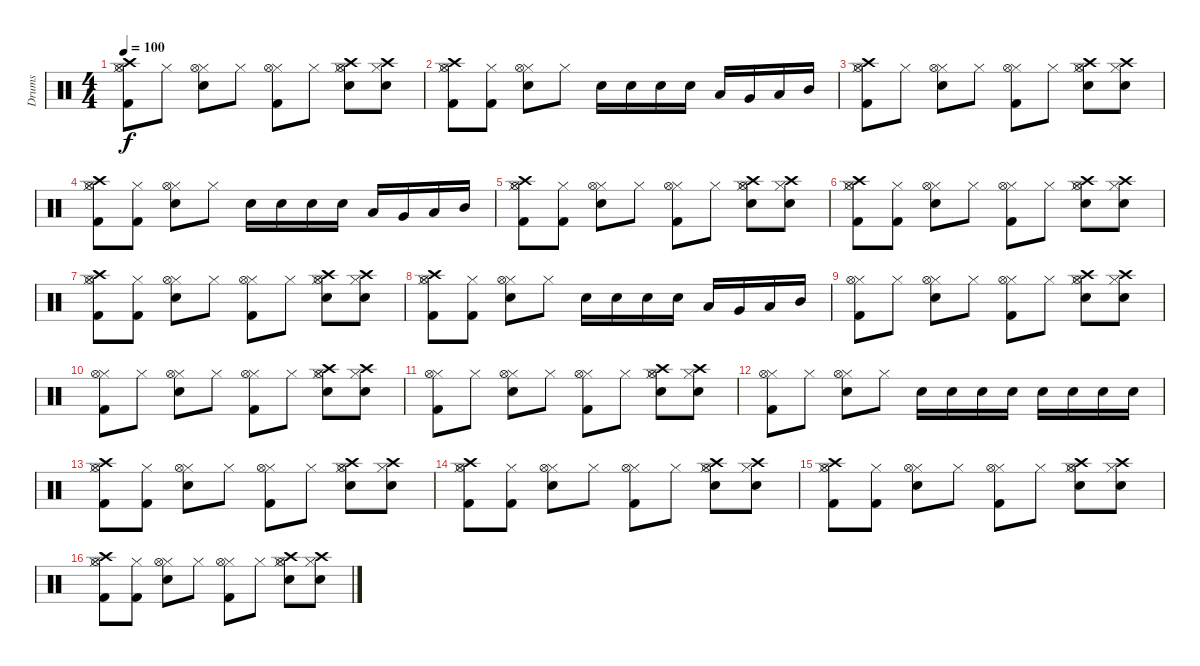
\track ("Drums" "Drums") {instrument percussion}
\staff {score}
\articulation defaults
\ts (4 4)
\tempo 100
\clef neutral
\ks c
("Crash high (hit)" "Kick (hit) 2" "Hi-Hat (closed)" "Hi-Hat (open)").8{dy f} "Hi-Hat (closed)".8 ("Electric Snare (hit)" "Hi-Hat (closed)" "Hi-Hat (open)").8 "Hi-Hat (closed)".8 ("Kick (hit) 2" "Hi-Hat (closed)" "Hi-Hat (open)").8 "Hi-Hat (closed)".8 ("Crash high (hit)" "Electric Snare (hit)" "Hi-Hat (closed)" "Hi-Hat (open)").8 ("Crash high (hit)" "Electric Snare (hit)" "Hi-Hat (closed)").8 |
("Crash high (hit)" "Kick (hit) 2" "Hi-Hat (closed)" "Hi-Hat (open)").8 ("Kick (hit) 2" "Hi-Hat (closed)").8 ("Electric Snare (hit)" "Hi-Hat (closed)" "Hi-Hat (open)").8 "Hi-Hat (closed)".8 "Electric Snare (hit)".16 "Electric Snare (hit)".16 "Electric Snare (hit)".16 "Electric Snare (hit)".16 "Low Floor Tom (hit)".16 "Very Low Tom (hit)".16 "Low Tom (hit)".16 "Mid Tom (hit)".16 |
("Crash high (hit)" "Kick (hit) 2" "Hi-Hat (closed)" "Hi-Hat (open)").8 "Hi-Hat (closed)".8 ("Electric Snare (hit)" "Hi-Hat (closed)" "Hi-Hat (open)").8 "Hi-Hat (closed)".8 ("Kick (hit) 2" "Hi-Hat (closed)" "Hi-Hat (open)").8 "Hi-Hat (closed)".8 ("Crash high (hit)" "Electric Snare (hit)" "Hi-Hat (closed)" "Hi-Hat (open)").8 ("Crash high (hit)" "Electric Snare (hit)" "Hi-Hat (closed)").8 |
("Crash high (hit)" "Kick (hit) 2" "Hi-Hat (closed)" "Hi-Hat (open)").8 ("Kick (hit) 2" "Hi-Hat (closed)").8 ("Electric Snare (hit)" "Hi-Hat (closed)" "Hi-Hat (open)").8 "Hi-Hat (closed)".8 "Electric Snare (hit)".16 "Electric Snare (hit)".16 "Electric Snare (hit)".16 "Electric Snare (hit)".16 "Low Floor Tom (hit)".16 "Very Low Tom (hit)".16 "Low Tom (hit)".16 "Mid Tom (hit)".16 |
("Crash high (hit)" "Kick (hit) 2" "Hi-Hat (closed)" "Hi-Hat (open)").8 ("Kick (hit) 2" "Hi-Hat (closed)").8 ("Electric Snare (hit)" "Hi-Hat (closed)" "Hi-Hat (open)").8 "Hi-Hat (closed)".8 ("Kick (hit) 2" "Hi-Hat (closed)" "Hi-Hat (open)").8 "Hi-Hat (closed)".8 ("Crash high (hit)" "Electric Snare (hit)" "Hi-Hat (closed)" "Hi-Hat (open)").8 ("Crash high (hit)" "Electric Snare (hit)" "Hi-Hat (closed)").8 |
("Crash high (hit)" "Kick (hit) 2" "Hi-Hat (closed)" "Hi-Hat (open)").8 ("Kick (hit) 2" "Hi-Hat (closed)").8 ("Electric Snare (hit)" "Hi-Hat (closed)" "Hi-Hat (open)").8 "Hi-Hat (closed)".8 ("Kick (hit) 2" "Hi-Hat (closed)" "Hi-Hat (open)").8 "Hi-Hat (closed)".8 ("Crash high (hit)" "Electric Snare (hit)" "Hi-Hat (closed)" "Hi-Hat (open)").8 ("Crash high (hit)" "Electric Snare (hit)" "Hi-Hat (closed)").8 |
("Crash high (hit)" "Kick (hit) 2" "Hi-Hat (closed)" "Hi-Hat (open)").8 ("Kick (hit) 2" "Hi-Hat (closed)").8 ("Electric Snare (hit)" "Hi-Hat (closed)" "Hi-Hat (open)").8 "Hi-Hat (closed)".8 ("Kick (hit) 2" "Hi-Hat (closed)" "Hi-Hat (open)").8 "Hi-Hat (closed)".8 ("Crash high (hit)" "Electric Snare (hit)" "Hi-Hat (closed)" "Hi-Hat (open)").8 ("Crash high (hit)" "Electric Snare (hit)" "Hi-Hat (closed)").8 |
("Crash high (hit)" "Kick (hit) 2" "Hi-Hat (closed)" "Hi-Hat (open)").8 ("Kick (hit) 2" "Hi-Hat (closed)").8 ("Electric Snare (hit)" "Hi-Hat (closed)" "Hi-Hat (open)").8 "Hi-Hat (closed)".8 "Electric Snare (hit)".16 "Electric Snare (hit)".16 "Electric Snare (hit)".16 "Electric Snare (hit)".16 "Low Floor Tom (hit)".16 "Very Low Tom (hit)".16 "Low Tom (hit)".16 "Mid Tom (hit)".16 |
("Kick (hit) 2" "Hi-Hat (closed)" "Hi-Hat (open)").8{volume 10} "Hi-Hat (closed)".8 ("Electric Snare (hit)" "Hi-Hat (closed)" "Hi-Hat (open)").8 "Hi-Hat (closed)".8 ("Kick (hit) 2" "Hi-Hat (closed)" "Hi-Hat (open)").8 "Hi-Hat (closed)".8 ("Crash high (hit)" "Electric Snare (hit)" "Hi-Hat (closed)" "Hi-Hat (open)").8 ("Crash high (hit)" "Electric Snare (hit)" "Hi-Hat (closed)").8 |
("Kick (hit) 2" "Hi-Hat (closed)" "Hi-Hat (open)").8{volume 10} "Hi-Hat (closed)".8 ("Electric Snare (hit)" "Hi-Hat (closed)" "Hi-Hat (open)").8 "Hi-Hat (closed)".8 ("Kick (hit) 2" "Hi-Hat (closed)" "Hi-Hat (open)").8 "Hi-Hat (closed)".8 ("Crash high (hit)" "Electric Snare (hit)" "Hi-Hat (closed)" "Hi-Hat (open)").8 ("Crash high (hit)" "Electric Snare (hit)" "Hi-Hat (closed)").8 |
("Kick (hit) 2" "Hi-Hat (closed)" "Hi-Hat (open)").8{volume 10} "Hi-Hat (closed)".8 ("Electric Snare (hit)" "Hi-Hat (closed)" "Hi-Hat (open)").8 "Hi-Hat (closed)".8 ("Kick (hit) 2" "Hi-Hat (closed)" "Hi-Hat (open)").8 "Hi-Hat (closed)".8 ("Crash high (hit)" "Electric Snare (hit)" "Hi-Hat (closed)" "Hi-Hat (open)").8 ("Crash high (hit)" "Electric Snare (hit)" "Hi-Hat (closed)").8 |
("Kick (hit) 2" "Hi-Hat (closed)" "Hi-Hat (open)").8{volume 10} "Hi-Hat (closed)".8 ("Electric Snare (hit)" "Hi-Hat (closed)" "Hi-Hat (open)").8 "Hi-Hat (closed)".8 "Electric Snare (hit)".16 "Electric Snare (hit)".16 "Electric Snare (hit)".16 "Electric Snare (hit)".16 "Electric Snare (hit)".16 "Electric Snare (hit)".16 "Electric Snare (hit)".16 "Electric Snare (hit)".16 |
("Crash high (hit)" "Kick (hit) 2" "Hi-Hat (closed)" "Hi-Hat (open)").8 ("Kick (hit) 2" "Hi-Hat (closed)").8 ("Electric Snare (hit)" "Hi-Hat (closed)" "Hi-Hat (open)").8 "Hi-Hat (closed)".8 ("Kick (hit) 2" "Hi-Hat (closed)" "Hi-Hat (open)").8 "Hi-Hat (closed)".8 ("Crash high (hit)" "Electric Snare (hit)" "Hi-Hat (closed)" "Hi-Hat (open)").8 ("Crash high (hit)" "Electric Snare (hit)" "Hi-Hat (closed)").8 |
("Crash high (hit)" "Kick (hit) 2" "Hi-Hat (closed)" "Hi-Hat (open)").8 ("Kick (hit) 2" "Hi-Hat (closed)").8 ("Electric Snare (hit)" "Hi-Hat (closed)" "Hi-Hat (open)").8 "Hi-Hat (closed)".8 ("Kick (hit) 2" "Hi-Hat (closed)" "Hi-Hat (open)").8 "Hi-Hat (closed)".8 ("Crash high (hit)" "Electric Snare (hit)" "Hi-Hat (closed)" "Hi-Hat (open)").8 ("Crash high (hit)" "Electric Snare (hit)" "Hi-Hat (closed)").8 |
("Crash high (hit)" "Kick (hit) 2" "Hi-Hat (closed)" "Hi-Hat (open)").8 ("Kick (hit) 2" "Hi-Hat (closed)").8 ("Electric Snare (hit)" "Hi-Hat (closed)" "Hi-Hat (open)").8 "Hi-Hat (closed)".8 ("Kick (hit) 2" "Hi-Hat (closed)" "Hi-Hat (open)").8 "Hi-Hat (closed)".8 ("Crash high (hit)" "Electric Snare (hit)" "Hi-Hat (closed)" "Hi-Hat (open)").8 ("Crash high (hit)" "Electric Snare (hit)" "Hi-Hat (closed)").8 |
("Crash high (hit)" "Kick (hit) 2" "Hi-Hat (closed)" "Hi-Hat (open)").8 ("Kick (hit) 2" "Hi-Hat (closed)").8 ("Electric Snare (hit)" "Hi-Hat (closed)" "Hi-Hat (open)").8 "Hi-Hat (closed)".8 ("Kick (hit) 2" "Hi-Hat (closed)" "Hi-Hat (open)").8 "Hi-Hat (closed)".8 ("Crash high (hit)" "Electric Snare (hit)" "Hi-Hat (closed)" "Hi-Hat (open)").8 ("Crash high (hit)" "Electric Snare (hit)" "Hi-Hat (closed)").8
